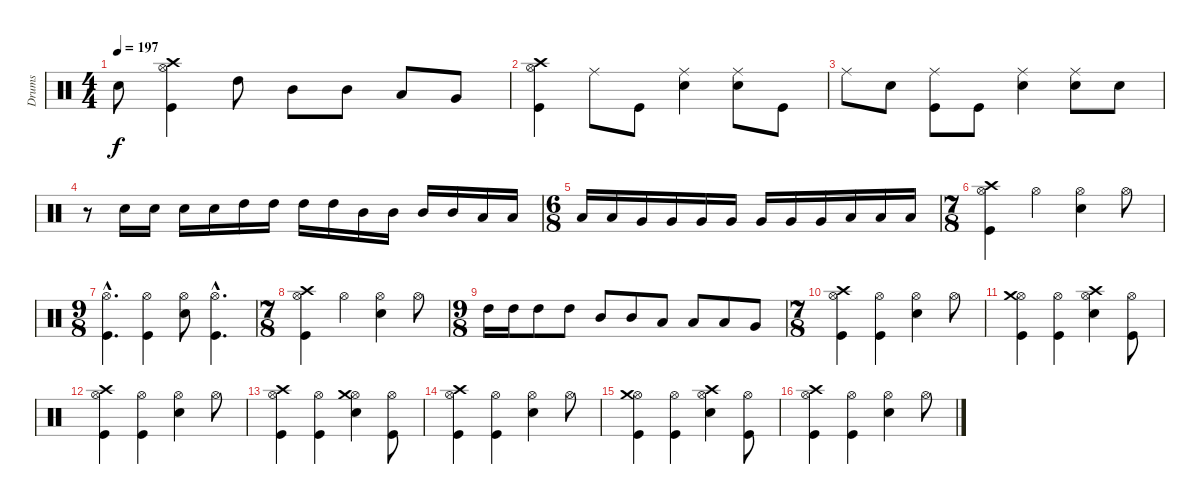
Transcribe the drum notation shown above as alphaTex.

\track ("Drums" "Drums") {instrument percussion}
\staff {score}
\articulation defaults
\ts (4 4)
\tempo 197
\clef neutral
\ks c "Electric Snare (hit)".8{dy f}
("Crash high (hit)" "Hi-Hat (open)" "Kick (hit)").4 "High Tom (hit)".8 "Mid Tom (hit)".8 "Mid Tom (hit)".8 "Low Tom (hit)".8 "Very Low Tom (hit)".8 |
("Hi-Hat (open)" "Crash high (hit)" "Kick (hit)").4 "Ride (middle)".8 "Kick (hit)".8 ("Ride (middle)" "Electric Snare (hit)").4 ("Ride (middle)" "Electric Snare (hit)").8 "Kick (hit)".8 |
"Ride (middle)".8 "Electric Snare (hit)".8 ("Ride (middle)" "Kick (hit)").8 "Kick (hit)".8 ("Ride (middle)" "Electric Snare (hit)").4 ("Ride (middle)" "Electric Snare (hit)").8 "Electric Snare (hit)".8 |
r.8 "Electric Snare (hit)".16 "Electric Snare (hit)".16 "Electric Snare (hit)".16 "Electric Snare (hit)".16 "High Tom (hit)".16 "High Tom (hit)".16 "High Tom (hit)".16 "High Tom (hit)".16 "Mid Tom (hit)".16 "Mid Tom (hit)".16 "Mid Tom (hit)".16 "Mid Tom (hit)".16 "Low Tom (hit)".16 "Low Tom (hit)".16 |
\ts (6 8)
"Low Tom (hit)".16 "Low Tom (hit)".16 "Very Low Tom (hit)".16 "Very Low Tom (hit)".16 "Very Low Tom (hit)".16 "Very Low Tom (hit)".16 "Very Low Tom (hit)".16 "Very Low Tom (hit)".16 "Very Low Tom (hit)".16 "Low Floor Tom (hit)".16 "Low Floor Tom (hit)".16 "Low Floor Tom (hit)".16 |
\ts (7 8)
("Crash high (hit)" "Hi-Hat (open)" "Kick (hit)").4 "Hi-Hat (open)".4 ("Hi-Hat (open)" "Electric Snare (hit)").4 "Hi-Hat (open)".8 |
\ts (9 8)
("Hi-Hat (open)"{hac} "Kick (hit)"{hac}).4{d} ("Hi-Hat (open)" "Kick (hit)").4 ("Hi-Hat (open)" "Electric Snare (hit)").8 ("Hi-Hat (open)"{hac} "Kick (hit)"{hac}).4{d} |
\ts (7 8)
("Crash high (hit)" "Hi-Hat (open)" "Kick (hit)").4 "Hi-Hat (open)".4 ("Hi-Hat (open)" "Electric Snare (hit)").4 "Hi-Hat (open)".8 |
\ts (9 8)
"High Tom (hit)".16 "High Tom (hit)".16 "High Tom (hit)".8 "High Tom (hit)".8 "Mid Tom (hit)".8 "Mid Tom (hit)".8 "Low Tom (hit)".8 "Low Tom (hit)".8 "Low Tom (hit)".8 "Very Low Tom (hit)".8 |
\ts (7 8)
("Hi-Hat (open)" "Crash high (hit)" "Kick (hit)").4 ("Hi-Hat (open)" "Kick (hit)").4 ("Hi-Hat (open)" "Electric Snare (hit)").4 "Hi-Hat (open)".8 |
("Hi-Hat (open)" "Crash medium (hit)" "Kick (hit)").4 ("Hi-Hat (open)" "Kick (hit)").4 ("Hi-Hat (open)" "Crash high (hit)" "Electric Snare (hit)").4 ("Hi-Hat (open)" "Kick (hit)").8 |
("Hi-Hat (open)" "Crash high (hit)" "Kick (hit)").4 ("Hi-Hat (open)" "Kick (hit)").4 ("Hi-Hat (open)" "Electric Snare (hit)").4 "Hi-Hat (open)".8 |
("Hi-Hat (open)" "Crash high (hit)" "Kick (hit)").4 ("Hi-Hat (open)" "Kick (hit)").4 ("Hi-Hat (open)" "Crash medium (hit)" "Electric Snare (hit)").4 ("Hi-Hat (open)" "Kick (hit)").8 |
("Hi-Hat (open)" "Crash high (hit)" "Kick (hit)").4 ("Hi-Hat (open)" "Kick (hit)").4 ("Hi-Hat (open)" "Electric Snare (hit)").4 "Hi-Hat (open)".8 |
("Hi-Hat (open)" "Crash medium (hit)" "Kick (hit)").4 ("Hi-Hat (open)" "Kick (hit)").4 ("Hi-Hat (open)" "Crash high (hit)" "Electric Snare (hit)").4 ("Hi-Hat (open)" "Kick (hit)").8 |
("Hi-Hat (open)" "Crash high (hit)" "Kick (hit)").4 ("Hi-Hat (open)" "Kick (hit)").4 ("Hi-Hat (open)" "Electric Snare (hit)").4 "Hi-Hat (open)".8
